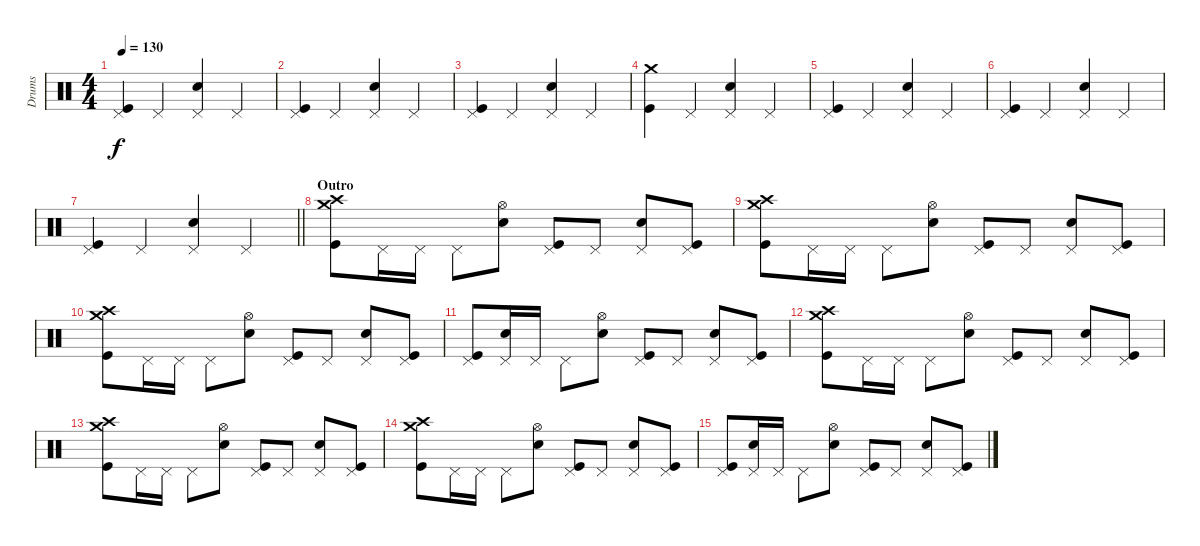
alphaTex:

\track ("Drums" "Drums") {instrument percussion}
\staff {score}
\articulation defaults
\ts (4 4)
\tempo 130
\clef neutral
\ks c
("Pedal Hi-Hat (hit)" "Kick (hit)").4{dy f} "Pedal Hi-Hat (hit)".4 ("Pedal Hi-Hat (hit)" "Snare (hit) 2").4 "Pedal Hi-Hat (hit)".4 |
("Pedal Hi-Hat (hit)" "Kick (hit)").4 "Pedal Hi-Hat (hit)".4 ("Pedal Hi-Hat (hit)" "Snare (hit) 2").4 "Pedal Hi-Hat (hit)".4 |
("Pedal Hi-Hat (hit)" "Kick (hit)").4 "Pedal Hi-Hat (hit)".4 ("Pedal Hi-Hat (hit)" "Snare (hit) 2").4 "Pedal Hi-Hat (hit)".4 |
("Kick (hit)" "Crash medium (hit)").4 "Pedal Hi-Hat (hit)".4 ("Pedal Hi-Hat (hit)" "Snare (hit) 2").4 "Pedal Hi-Hat (hit)".4 |
("Pedal Hi-Hat (hit)" "Kick (hit)").4 "Pedal Hi-Hat (hit)".4 ("Pedal Hi-Hat (hit)" "Snare (hit) 2").4 "Pedal Hi-Hat (hit)".4 |
("Pedal Hi-Hat (hit)" "Kick (hit)").4 "Pedal Hi-Hat (hit)".4 ("Pedal Hi-Hat (hit)" "Snare (hit) 2").4 "Pedal Hi-Hat (hit)".4 |
\barLineRight lightlight
("Pedal Hi-Hat (hit)" "Kick (hit)").4 "Pedal Hi-Hat (hit)".4 ("Pedal Hi-Hat (hit)" "Snare (hit) 2").4 "Pedal Hi-Hat (hit)".4 |
\section ("" "Outro")
("Kick (hit)" "Crash high (hit)" "Crash medium (hit)").8 "Pedal Hi-Hat (hit)".16 "Pedal Hi-Hat (hit)".16 "Pedal Hi-Hat (hit)".8 ("Hi-Hat (open)" "Snare (hit) 2").8 ("Pedal Hi-Hat (hit)" "Kick (hit)").8 "Pedal Hi-Hat (hit)".8 ("Pedal Hi-Hat (hit)" "Snare (hit) 2").8 ("Pedal Hi-Hat (hit)" "Kick (hit)").8 |
("Kick (hit)" "Crash high (hit)" "Crash medium (hit)").8 "Pedal Hi-Hat (hit)".16 "Pedal Hi-Hat (hit)".16 "Pedal Hi-Hat (hit)".8 ("Hi-Hat (open)" "Snare (hit) 2").8 ("Pedal Hi-Hat (hit)" "Kick (hit)").8 "Pedal Hi-Hat (hit)".8 ("Pedal Hi-Hat (hit)" "Snare (hit) 2").8 ("Pedal Hi-Hat (hit)" "Kick (hit)").8 |
("Kick (hit)" "Crash high (hit)" "Crash medium (hit)").8 "Pedal Hi-Hat (hit)".16 "Pedal Hi-Hat (hit)".16 "Pedal Hi-Hat (hit)".8 ("Hi-Hat (open)" "Snare (hit) 2").8 ("Pedal Hi-Hat (hit)" "Kick (hit)").8 "Pedal Hi-Hat (hit)".8 ("Pedal Hi-Hat (hit)" "Snare (hit) 2").8 ("Pedal Hi-Hat (hit)" "Kick (hit)").8 |
("Pedal Hi-Hat (hit)" "Kick (hit)").8 ("Pedal Hi-Hat (hit)" "Snare (hit) 2").16 "Pedal Hi-Hat (hit)".16 "Pedal Hi-Hat (hit)".8 ("Hi-Hat (open)" "Snare (hit) 2").8 ("Pedal Hi-Hat (hit)" "Kick (hit)").8 "Pedal Hi-Hat (hit)".8 ("Pedal Hi-Hat (hit)" "Snare (hit) 2").8 ("Pedal Hi-Hat (hit)" "Kick (hit)").8 |
("Kick (hit)" "Crash high (hit)" "Crash medium (hit)").8 "Pedal Hi-Hat (hit)".16 "Pedal Hi-Hat (hit)".16 "Pedal Hi-Hat (hit)".8 ("Hi-Hat (open)" "Snare (hit) 2").8 ("Pedal Hi-Hat (hit)" "Kick (hit)").8 "Pedal Hi-Hat (hit)".8 ("Pedal Hi-Hat (hit)" "Snare (hit) 2").8 ("Pedal Hi-Hat (hit)" "Kick (hit)").8 |
("Kick (hit)" "Crash high (hit)" "Crash medium (hit)").8 "Pedal Hi-Hat (hit)".16 "Pedal Hi-Hat (hit)".16 "Pedal Hi-Hat (hit)".8 ("Hi-Hat (open)" "Snare (hit) 2").8 ("Pedal Hi-Hat (hit)" "Kick (hit)").8 "Pedal Hi-Hat (hit)".8 ("Pedal Hi-Hat (hit)" "Snare (hit) 2").8 ("Pedal Hi-Hat (hit)" "Kick (hit)").8 |
("Kick (hit)" "Crash high (hit)" "Crash medium (hit)").8 "Pedal Hi-Hat (hit)".16 "Pedal Hi-Hat (hit)".16 "Pedal Hi-Hat (hit)".8 ("Hi-Hat (open)" "Snare (hit) 2").8 ("Pedal Hi-Hat (hit)" "Kick (hit)").8 "Pedal Hi-Hat (hit)".8 ("Pedal Hi-Hat (hit)" "Snare (hit) 2").8 ("Pedal Hi-Hat (hit)" "Kick (hit)").8 |
("Pedal Hi-Hat (hit)" "Kick (hit)").8 ("Pedal Hi-Hat (hit)" "Snare (hit) 2").16 "Pedal Hi-Hat (hit)".16 "Pedal Hi-Hat (hit)".8 ("Hi-Hat (open)" "Snare (hit) 2").8 ("Pedal Hi-Hat (hit)" "Kick (hit)").8 "Pedal Hi-Hat (hit)".8 ("Pedal Hi-Hat (hit)" "Snare (hit) 2").8 ("Pedal Hi-Hat (hit)" "Kick (hit)").8
